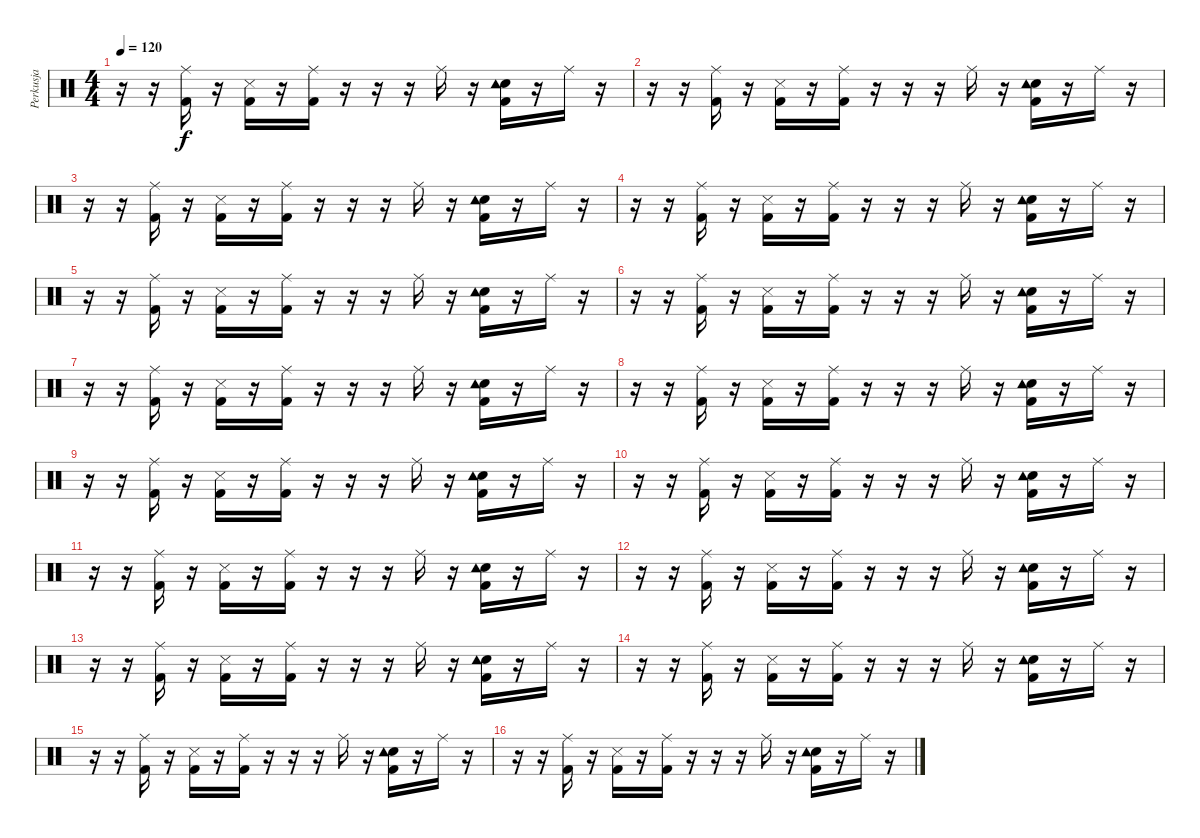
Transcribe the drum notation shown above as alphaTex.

\track ("Perkusja" "Perkusja") {instrument percussion}
\staff {score}
\articulation defaults
\ts (4 4)
\tempo 120
\clef neutral
\ks c
r.16{dy f} r.16 ("Kick (hit) 2" "Ride (middle)").16 r.16 ("Snare (side stick) 3" "Kick (hit) 2").16 r.16 ("Kick (hit) 2" "Ride (middle)").16 r.16 r.16 r.16 "Ride (middle)".16 r.16 ("Electric Snare (hit)" "Tambourine (hit)" "Kick (hit) 2").16 r.16 "Ride (middle)".16 r.16 |
r.16 r.16 ("Kick (hit) 2" "Ride (middle)").16 r.16 ("Snare (side stick) 3" "Kick (hit) 2").16 r.16 ("Kick (hit) 2" "Ride (middle)").16 r.16 r.16 r.16 "Ride (middle)".16 r.16 ("Electric Snare (hit)" "Tambourine (hit)" "Kick (hit) 2").16{volume 8} r.16 "Ride (middle)".16 r.16 |
r.16 r.16 ("Kick (hit) 2" "Ride (middle)").16 r.16 ("Snare (side stick) 3" "Kick (hit) 2").16 r.16 ("Kick (hit) 2" "Ride (middle)").16 r.16 r.16 r.16 "Ride (middle)".16 r.16 ("Electric Snare (hit)" "Tambourine (hit)" "Kick (hit) 2").16 r.16 "Ride (middle)".16 r.16 |
r.16 r.16 ("Kick (hit) 2" "Ride (middle)").16 r.16 ("Snare (side stick) 3" "Kick (hit) 2").16 r.16 ("Kick (hit) 2" "Ride (middle)").16 r.16 r.16 r.16 "Ride (middle)".16 r.16 ("Electric Snare (hit)" "Tambourine (hit)" "Kick (hit) 2").16 r.16 "Ride (middle)".16 r.16 |
r.16 r.16 ("Kick (hit) 2" "Ride (middle)").16 r.16 ("Snare (side stick) 3" "Kick (hit) 2").16 r.16 ("Kick (hit) 2" "Ride (middle)").16 r.16 r.16 r.16 "Ride (middle)".16 r.16 ("Electric Snare (hit)" "Tambourine (hit)" "Kick (hit) 2").16 r.16 "Ride (middle)".16 r.16 |
r.16 r.16 ("Kick (hit) 2" "Ride (middle)").16 r.16 ("Snare (side stick) 3" "Kick (hit) 2").16 r.16 ("Kick (hit) 2" "Ride (middle)").16 r.16 r.16 r.16 "Ride (middle)".16 r.16 ("Electric Snare (hit)" "Tambourine (hit)" "Kick (hit) 2").16 r.16 "Ride (middle)".16 r.16 |
r.16 r.16 ("Kick (hit) 2" "Ride (middle)").16 r.16 ("Snare (side stick) 3" "Kick (hit) 2").16 r.16 ("Kick (hit) 2" "Ride (middle)").16 r.16 r.16 r.16 "Ride (middle)".16 r.16 ("Electric Snare (hit)" "Tambourine (hit)" "Kick (hit) 2").16 r.16 "Ride (middle)".16 r.16 |
r.16 r.16 ("Kick (hit) 2" "Ride (middle)").16 r.16 ("Snare (side stick) 3" "Kick (hit) 2").16 r.16 ("Kick (hit) 2" "Ride (middle)").16 r.16 r.16 r.16 "Ride (middle)".16 r.16 ("Electric Snare (hit)" "Tambourine (hit)" "Kick (hit) 2").16 r.16 "Ride (middle)".16 r.16 |
r.16 r.16 ("Kick (hit) 2" "Ride (middle)").16 r.16 ("Snare (side stick) 3" "Kick (hit) 2").16 r.16 ("Kick (hit) 2" "Ride (middle)").16 r.16 r.16 r.16 "Ride (middle)".16 r.16 ("Electric Snare (hit)" "Tambourine (hit)" "Kick (hit) 2").16 r.16 "Ride (middle)".16 r.16 |
r.16 r.16 ("Kick (hit) 2" "Ride (middle)").16 r.16 ("Snare (side stick) 3" "Kick (hit) 2").16 r.16 ("Kick (hit) 2" "Ride (middle)").16 r.16 r.16 r.16 "Ride (middle)".16 r.16 ("Electric Snare (hit)" "Tambourine (hit)" "Kick (hit) 2").16 r.16 "Ride (middle)".16 r.16 |
r.16 r.16 ("Kick (hit) 2" "Ride (middle)").16 r.16 ("Snare (side stick) 3" "Kick (hit) 2").16 r.16 ("Kick (hit) 2" "Ride (middle)").16 r.16 r.16 r.16 "Ride (middle)".16 r.16 ("Electric Snare (hit)" "Tambourine (hit)" "Kick (hit) 2").16 r.16 "Ride (middle)".16 r.16 |
r.16 r.16 ("Kick (hit) 2" "Ride (middle)").16 r.16 ("Snare (side stick) 3" "Kick (hit) 2").16 r.16 ("Kick (hit) 2" "Ride (middle)").16 r.16 r.16 r.16 "Ride (middle)".16 r.16 ("Electric Snare (hit)" "Tambourine (hit)" "Kick (hit) 2").16 r.16 "Ride (middle)".16 r.16 |
r.16 r.16 ("Kick (hit) 2" "Ride (middle)").16 r.16 ("Snare (side stick) 3" "Kick (hit) 2").16 r.16 ("Kick (hit) 2" "Ride (middle)").16 r.16 r.16 r.16 "Ride (middle)".16 r.16 ("Electric Snare (hit)" "Tambourine (hit)" "Kick (hit) 2").16 r.16 "Ride (middle)".16 r.16 |
r.16 r.16 ("Kick (hit) 2" "Ride (middle)").16 r.16 ("Snare (side stick) 3" "Kick (hit) 2").16 r.16 ("Kick (hit) 2" "Ride (middle)").16 r.16 r.16 r.16 "Ride (middle)".16 r.16 ("Electric Snare (hit)" "Tambourine (hit)" "Kick (hit) 2").16 r.16 "Ride (middle)".16 r.16 |
r.16 r.16 ("Kick (hit) 2" "Ride (middle)").16 r.16 ("Snare (side stick) 3" "Kick (hit) 2").16 r.16 ("Kick (hit) 2" "Ride (middle)").16 r.16 r.16 r.16 "Ride (middle)".16 r.16 ("Electric Snare (hit)" "Tambourine (hit)" "Kick (hit) 2").16 r.16 "Ride (middle)".16 r.16 |
r.16 r.16 ("Kick (hit) 2" "Ride (middle)").16 r.16 ("Snare (side stick) 3" "Kick (hit) 2").16 r.16 ("Kick (hit) 2" "Ride (middle)").16 r.16 r.16 r.16 "Ride (middle)".16 r.16 ("Electric Snare (hit)" "Tambourine (hit)" "Kick (hit) 2").16 r.16 "Ride (middle)".16 r.16
